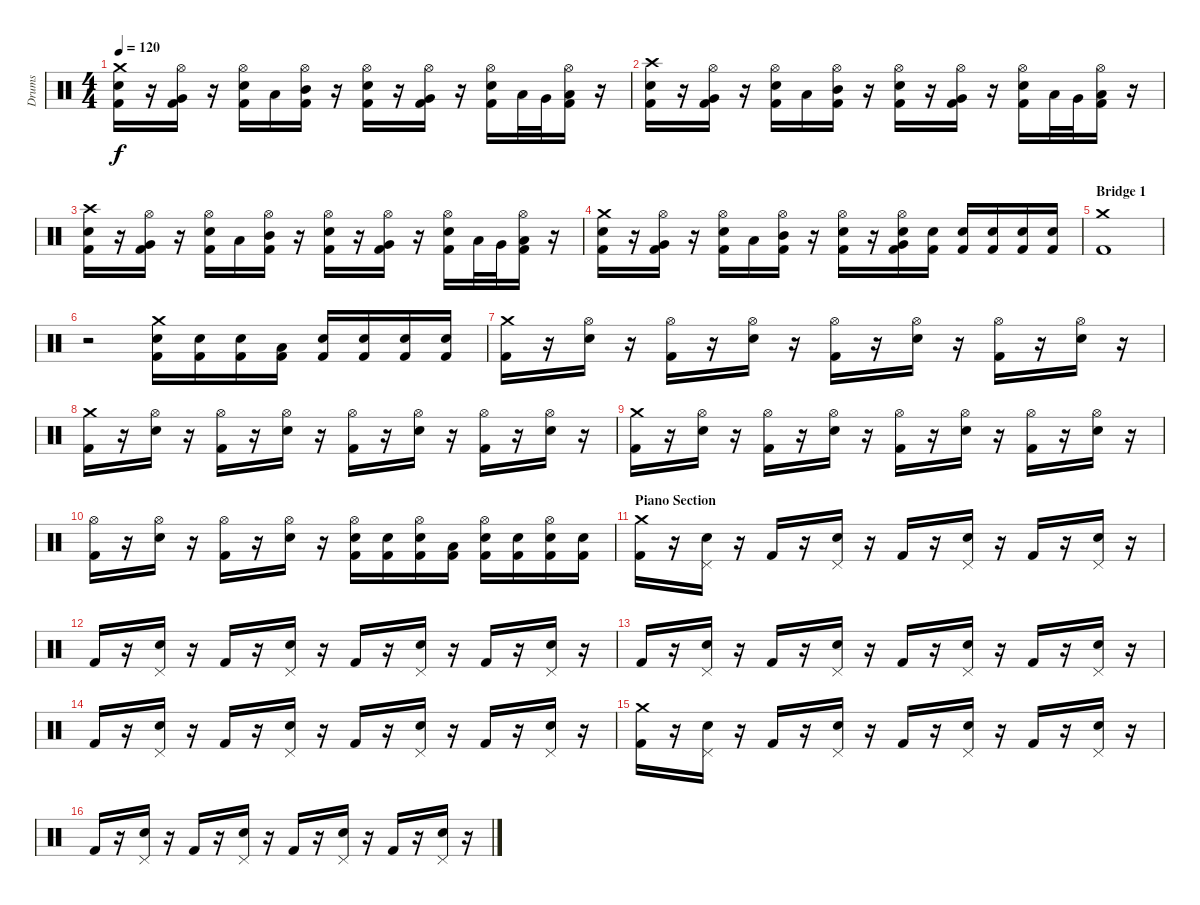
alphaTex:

\track ("Drums" "Drums") {instrument percussion}
\staff {score}
\articulation defaults
\ts (4 4)
\tempo 120
\clef neutral
\ks c
("Crash medium (hit)" "Electric Snare (hit)" "Kick (hit) 2").16{dy f} r.16 ("Hi-Hat (open)" "Very Low Tom (hit)" "Kick (hit) 2").16 r.16 ("Hi-Hat (open)" "Electric Snare (hit)" "Kick (hit) 2").16 "Low Tom (hit)".16 ("Hi-Hat (open)" "Mid Tom (hit)" "Kick (hit) 2").16 r.16 ("Hi-Hat (open)" "Electric Snare (hit)" "Kick (hit) 2").16 r.16 ("Hi-Hat (open)" "Very Low Tom (hit)" "Kick (hit) 2").16 r.16 ("Hi-Hat (open)" "Electric Snare (hit)" "Kick (hit) 2").16 "Low Tom (hit)".32 "Very Low Tom (hit)".32 ("Hi-Hat (open)" "Low Floor Tom (hit)" "Kick (hit) 2").16 r.16 |
("Crash high (hit)" "Electric Snare (hit)" "Kick (hit) 2").16 r.16 ("Hi-Hat (open)" "Very Low Tom (hit)" "Kick (hit) 2").16 r.16 ("Hi-Hat (open)" "Electric Snare (hit)" "Kick (hit) 2").16 "Low Tom (hit)".16 ("Hi-Hat (open)" "Mid Tom (hit)" "Kick (hit) 2").16 r.16 ("Hi-Hat (open)" "Electric Snare (hit)" "Kick (hit) 2").16 r.16 ("Hi-Hat (open)" "Very Low Tom (hit)" "Kick (hit) 2").16 r.16 ("Hi-Hat (open)" "Electric Snare (hit)" "Kick (hit) 2").16 "Low Tom (hit)".32 "Very Low Tom (hit)".32 ("Hi-Hat (open)" "Low Floor Tom (hit)" "Kick (hit) 2").16 r.16 |
("Crash high (hit)" "Electric Snare (hit)" "Kick (hit) 2").16 r.16 ("Hi-Hat (open)" "Very Low Tom (hit)" "Kick (hit) 2").16 r.16 ("Hi-Hat (open)" "Electric Snare (hit)" "Kick (hit) 2").16 "Low Tom (hit)".16 ("Hi-Hat (open)" "Mid Tom (hit)" "Kick (hit) 2").16 r.16 ("Hi-Hat (open)" "Electric Snare (hit)" "Kick (hit) 2").16 r.16 ("Hi-Hat (open)" "Very Low Tom (hit)" "Kick (hit) 2").16 r.16 ("Hi-Hat (open)" "Electric Snare (hit)" "Kick (hit) 2").16 "Low Tom (hit)".32 "Very Low Tom (hit)".32 ("Hi-Hat (open)" "Low Floor Tom (hit)" "Kick (hit) 2").16 r.16 |
("Crash medium (hit)" "Electric Snare (hit)" "Kick (hit) 2").16 r.16 ("Hi-Hat (open)" "Very Low Tom (hit)" "Kick (hit) 2").16 r.16 ("Hi-Hat (open)" "Electric Snare (hit)" "Kick (hit) 2").16 "Low Tom (hit)".16 ("Hi-Hat (open)" "Mid Tom (hit)" "Kick (hit) 2").16 r.16 ("Hi-Hat (open)" "Electric Snare (hit)" "Kick (hit) 2").16 r.16 ("Hi-Hat (open)" "Very Low Tom (hit)" "Electric Snare (hit)" "Kick (hit) 2").16 ("Electric Snare (hit)" "Kick (hit) 2").16 ("Electric Snare (hit)" "Kick (hit) 2").16 ("Electric Snare (hit)" "Kick (hit) 2").16 ("Electric Snare (hit)" "Kick (hit) 2").16 ("Electric Snare (hit)" "Kick (hit) 2").16 |
\section ("" "Bridge 1")
("Crash medium (hit)" "Kick (hit) 2").1 |
r.2 ("Crash medium (hit)" "Electric Snare (hit)" "Kick (hit) 2").16 ("Electric Snare (hit)" "Kick (hit) 2").16 ("Electric Snare (hit)" "Kick (hit) 2").16 ("Low Tom (hit)" "Kick (hit) 2").16 ("Electric Snare (hit)" "Kick (hit) 2").16 ("Electric Snare (hit)" "Kick (hit) 2").16 ("Electric Snare (hit)" "Kick (hit) 2").16 ("Electric Snare (hit)" "Kick (hit) 2").16 |
("Crash medium (hit)" "Kick (hit) 2").16 r.16 ("Hi-Hat (open)" "Electric Snare (hit)").16 r.16 ("Hi-Hat (open)" "Kick (hit) 2").16 r.16 ("Hi-Hat (open)" "Electric Snare (hit)").16 r.16 ("Hi-Hat (open)" "Kick (hit) 2").16 r.16 ("Hi-Hat (open)" "Electric Snare (hit)").16 r.16 ("Hi-Hat (open)" "Kick (hit) 2").16 r.16 ("Hi-Hat (open)" "Electric Snare (hit)").16 r.16 |
("Crash medium (hit)" "Kick (hit) 2").16 r.16 ("Hi-Hat (open)" "Electric Snare (hit)").16 r.16 ("Hi-Hat (open)" "Kick (hit) 2").16 r.16 ("Hi-Hat (open)" "Electric Snare (hit)").16 r.16 ("Hi-Hat (open)" "Kick (hit) 2").16 r.16 ("Hi-Hat (open)" "Electric Snare (hit)").16 r.16 ("Hi-Hat (open)" "Kick (hit) 2").16 r.16 ("Hi-Hat (open)" "Electric Snare (hit)").16 r.16 |
("Crash medium (hit)" "Kick (hit) 2").16 r.16 ("Hi-Hat (open)" "Electric Snare (hit)").16 r.16 ("Hi-Hat (open)" "Kick (hit) 2").16 r.16 ("Hi-Hat (open)" "Electric Snare (hit)").16 r.16 ("Hi-Hat (open)" "Kick (hit) 2").16 r.16 ("Hi-Hat (open)" "Electric Snare (hit)").16 r.16 ("Hi-Hat (open)" "Kick (hit) 2").16 r.16 ("Hi-Hat (open)" "Electric Snare (hit)").16 r.16 |
("Hi-Hat (open)" "Kick (hit) 2").16 r.16 ("Hi-Hat (open)" "Electric Snare (hit)").16 r.16 ("Hi-Hat (open)" "Kick (hit) 2").16 r.16 ("Hi-Hat (open)" "Electric Snare (hit)").16 r.16 ("Hi-Hat (open)" "Electric Snare (hit)" "Kick (hit) 2").16 ("Electric Snare (hit)" "Kick (hit) 2").16 ("Hi-Hat (open)" "Electric Snare (hit)" "Kick (hit) 2").16 ("Low Tom (hit)" "Kick (hit) 2").16 ("Hi-Hat (open)" "Electric Snare (hit)" "Kick (hit) 2").16 ("Electric Snare (hit)" "Kick (hit) 2").16 ("Hi-Hat (open)" "Electric Snare (hit)" "Kick (hit) 2").16 ("Electric Snare (hit)" "Kick (hit) 2").16 |
\section ("" "Piano Section")
("Crash medium (hit)" "Kick (hit) 2").16 r.16 ("Pedal Hi-Hat (hit)" "Electric Snare (hit)").16 r.16 "Kick (hit) 2".16 r.16 ("Pedal Hi-Hat (hit)" "Electric Snare (hit)").16 r.16 "Kick (hit) 2".16 r.16 ("Pedal Hi-Hat (hit)" "Electric Snare (hit)").16 r.16 "Kick (hit) 2".16 r.16 ("Pedal Hi-Hat (hit)" "Electric Snare (hit)").16 r.16 |
"Kick (hit) 2".16 r.16 ("Pedal Hi-Hat (hit)" "Electric Snare (hit)").16 r.16 "Kick (hit) 2".16 r.16 ("Pedal Hi-Hat (hit)" "Electric Snare (hit)").16 r.16 "Kick (hit) 2".16 r.16 ("Pedal Hi-Hat (hit)" "Electric Snare (hit)").16 r.16 "Kick (hit) 2".16 r.16 ("Pedal Hi-Hat (hit)" "Electric Snare (hit)").16 r.16 |
"Kick (hit) 2".16 r.16 ("Pedal Hi-Hat (hit)" "Electric Snare (hit)").16 r.16 "Kick (hit) 2".16 r.16 ("Pedal Hi-Hat (hit)" "Electric Snare (hit)").16 r.16 "Kick (hit) 2".16 r.16 ("Pedal Hi-Hat (hit)" "Electric Snare (hit)").16 r.16 "Kick (hit) 2".16 r.16 ("Pedal Hi-Hat (hit)" "Electric Snare (hit)").16 r.16 |
"Kick (hit) 2".16 r.16 ("Pedal Hi-Hat (hit)" "Electric Snare (hit)").16 r.16 "Kick (hit) 2".16 r.16 ("Pedal Hi-Hat (hit)" "Electric Snare (hit)").16 r.16 "Kick (hit) 2".16 r.16 ("Pedal Hi-Hat (hit)" "Electric Snare (hit)").16 r.16 "Kick (hit) 2".16 r.16 ("Pedal Hi-Hat (hit)" "Electric Snare (hit)").16 r.16 |
("Crash medium (hit)" "Kick (hit) 2").16 r.16 ("Pedal Hi-Hat (hit)" "Electric Snare (hit)").16 r.16 "Kick (hit) 2".16 r.16 ("Pedal Hi-Hat (hit)" "Electric Snare (hit)").16 r.16 "Kick (hit) 2".16 r.16 ("Pedal Hi-Hat (hit)" "Electric Snare (hit)").16 r.16 "Kick (hit) 2".16 r.16 ("Pedal Hi-Hat (hit)" "Electric Snare (hit)").16 r.16 |
"Kick (hit) 2".16 r.16 ("Pedal Hi-Hat (hit)" "Electric Snare (hit)").16 r.16 "Kick (hit) 2".16 r.16 ("Pedal Hi-Hat (hit)" "Electric Snare (hit)").16 r.16 "Kick (hit) 2".16 r.16 ("Pedal Hi-Hat (hit)" "Electric Snare (hit)").16 r.16 "Kick (hit) 2".16 r.16 ("Pedal Hi-Hat (hit)" "Electric Snare (hit)").16 r.16
